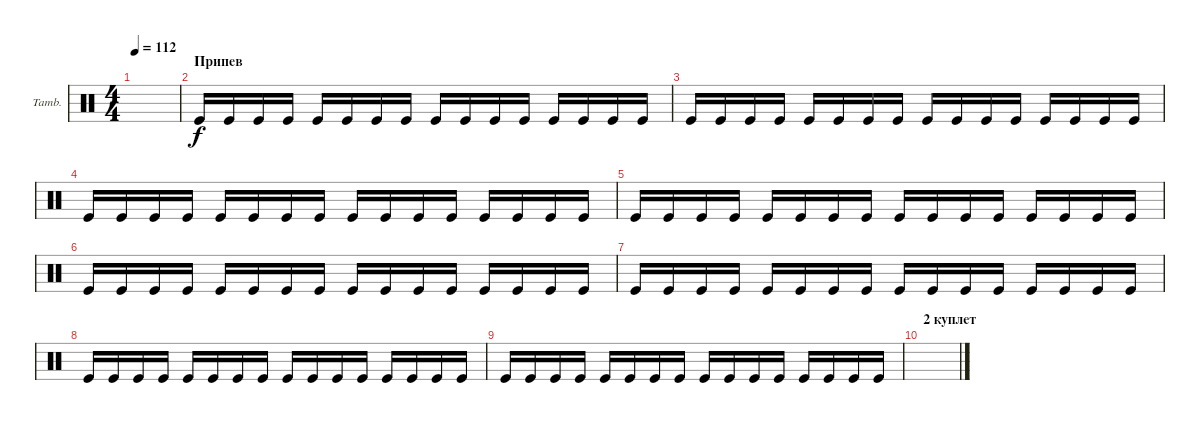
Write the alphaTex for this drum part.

\defaultSystemsLayout 4
\bracketExtendMode groupsimilarinstruments
\firstSystemTrackNameOrientation horizontal
\otherSystemsTrackNameOrientation horizontal
\track ("Tambourine" "Tamb.") {instrument percussion}
\staff {score}
\articulation defaults
\ts (4 4)
\tempo 112
\clef neutral
\scale
0.333333
\ks c
|
\section ("" "Припев")
\scale
0.333333 "Kick (hit)".16 "Kick (hit)".16 "Kick (hit)".16 "Kick (hit)".16 "Kick (hit)".16 "Kick (hit)".16 "Kick (hit)".16 "Kick (hit)".16 "Kick (hit)".16 "Kick (hit)".16 "Kick (hit)".16 "Kick (hit)".16 "Kick (hit)".16 "Kick (hit)".16 "Kick (hit)".16 "Kick (hit)".16 |
\scale
0.333333 "Kick (hit)".16 "Kick (hit)".16 "Kick (hit)".16 "Kick (hit)".16 "Kick (hit)".16 "Kick (hit)".16 "Kick (hit)".16 "Kick (hit)".16 "Kick (hit)".16 "Kick (hit)".16 "Kick (hit)".16 "Kick (hit)".16 "Kick (hit)".16 "Kick (hit)".16 "Kick (hit)".16 "Kick (hit)".16 |
\scale
0.333333 "Kick (hit)".16 "Kick (hit)".16 "Kick (hit)".16 "Kick (hit)".16 "Kick (hit)".16 "Kick (hit)".16 "Kick (hit)".16 "Kick (hit)".16 "Kick (hit)".16 "Kick (hit)".16 "Kick (hit)".16 "Kick (hit)".16 "Kick (hit)".16 "Kick (hit)".16 "Kick (hit)".16 "Kick (hit)".16 |
\scale
0.333333 "Kick (hit)".16 "Kick (hit)".16 "Kick (hit)".16 "Kick (hit)".16 "Kick (hit)".16 "Kick (hit)".16 "Kick (hit)".16 "Kick (hit)".16 "Kick (hit)".16 "Kick (hit)".16 "Kick (hit)".16 "Kick (hit)".16 "Kick (hit)".16 "Kick (hit)".16 "Kick (hit)".16 "Kick (hit)".16 |
\scale
0.333333 "Kick (hit)".16 "Kick (hit)".16 "Kick (hit)".16 "Kick (hit)".16 "Kick (hit)".16 "Kick (hit)".16 "Kick (hit)".16 "Kick (hit)".16 "Kick (hit)".16 "Kick (hit)".16 "Kick (hit)".16 "Kick (hit)".16 "Kick (hit)".16 "Kick (hit)".16 "Kick (hit)".16 "Kick (hit)".16 |
\scale
0.333333 "Kick (hit)".16 "Kick (hit)".16 "Kick (hit)".16 "Kick (hit)".16 "Kick (hit)".16 "Kick (hit)".16 "Kick (hit)".16 "Kick (hit)".16 "Kick (hit)".16 "Kick (hit)".16 "Kick (hit)".16 "Kick (hit)".16 "Kick (hit)".16 "Kick (hit)".16 "Kick (hit)".16 "Kick (hit)".16 |
\scale
0.333333 "Kick (hit)".16 "Kick (hit)".16 "Kick (hit)".16 "Kick (hit)".16 "Kick (hit)".16 "Kick (hit)".16 "Kick (hit)".16 "Kick (hit)".16 "Kick (hit)".16 "Kick (hit)".16 "Kick (hit)".16 "Kick (hit)".16 "Kick (hit)".16 "Kick (hit)".16 "Kick (hit)".16 "Kick (hit)".16 |
"Kick (hit)".16 "Kick (hit)".16 "Kick (hit)".16 "Kick (hit)".16 "Kick (hit)".16 "Kick (hit)".16 "Kick (hit)".16 "Kick (hit)".16 "Kick (hit)".16 "Kick (hit)".16 "Kick (hit)".16 "Kick (hit)".16 "Kick (hit)".16 "Kick (hit)".16 "Kick (hit)".16 "Kick (hit)".16 |
\section ("" "2 куплет")
